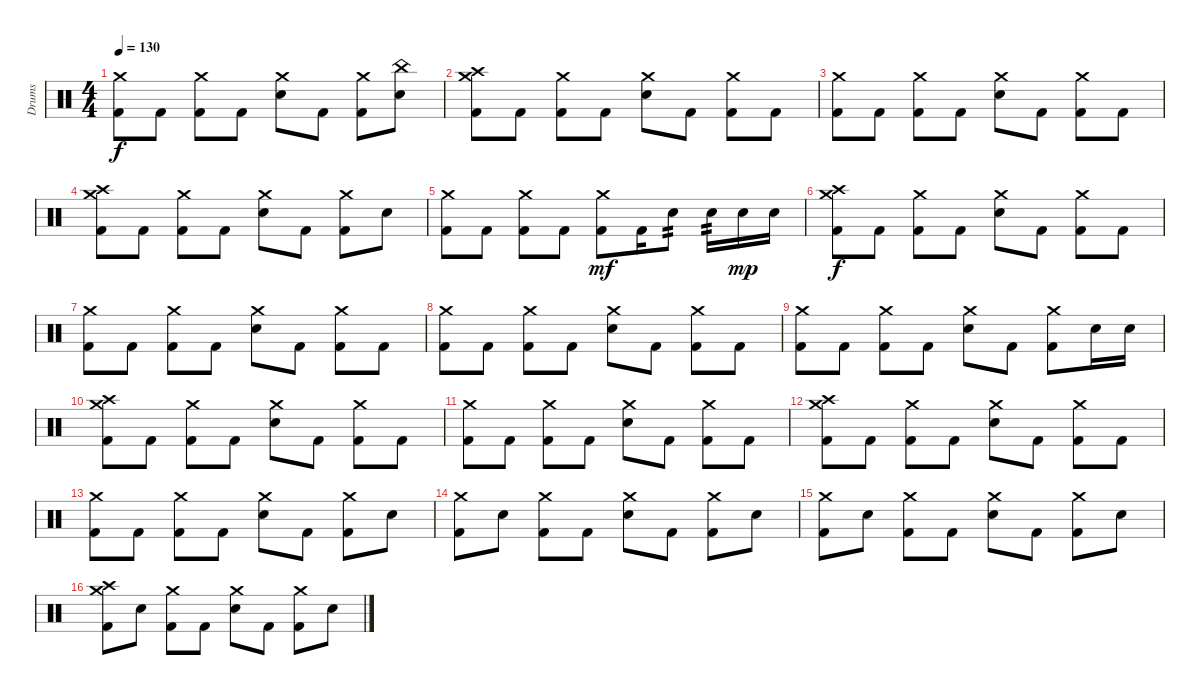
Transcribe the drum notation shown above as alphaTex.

\track ("Drums" "Drums") {instrument percussion}
\staff {score}
\articulation defaults
\ts (4 4)
\tempo 130
\clef neutral
\ks c
("Crash medium (hit)" "Kick (hit) 2").8{dy f} "Kick (hit) 2".8 ("Crash medium (hit)" "Kick (hit) 2").8 "Kick (hit) 2".8 ("Crash medium (hit)" "Snare (hit) 2").8 "Kick (hit) 2".8 ("Crash medium (hit)" "Kick (hit) 2").8 ("China (hit)" "Snare (hit) 2").8 |
("Crash high (hit)" "Crash medium (hit)" "Kick (hit) 2").8 "Kick (hit) 2".8 ("Crash medium (hit)" "Kick (hit) 2").8 "Kick (hit) 2".8 ("Crash medium (hit)" "Snare (hit) 2").8 "Kick (hit) 2".8 ("Crash medium (hit)" "Kick (hit) 2").8 "Kick (hit) 2".8 |
("Crash medium (hit)" "Kick (hit) 2").8 "Kick (hit) 2".8 ("Crash medium (hit)" "Kick (hit) 2").8 "Kick (hit) 2".8 ("Crash medium (hit)" "Snare (hit) 2").8 "Kick (hit) 2".8 ("Crash medium (hit)" "Kick (hit) 2").8 "Kick (hit) 2".8 |
("Crash high (hit)" "Crash medium (hit)" "Kick (hit) 2").8 "Kick (hit) 2".8 ("Crash medium (hit)" "Kick (hit) 2").8 "Kick (hit) 2".8 ("Crash medium (hit)" "Snare (hit) 2").8 "Kick (hit) 2".8 ("Crash medium (hit)" "Kick (hit) 2").8 "Snare (hit) 2".8 |
("Crash medium (hit)" "Kick (hit) 2").8 "Kick (hit) 2".8 ("Crash medium (hit)" "Kick (hit) 2").8 "Kick (hit) 2".8 ("Crash medium (hit)" "Kick (hit) 2").8{dy mf} "Kick (hit) 2".16 "Snare (hit) 2".8{tp 2} "Snare (hit) 2".16{tp 2} "Snare (hit) 2".16{dy mp} "Snare (hit) 2".16 |
("Crash high (hit)" "Crash medium (hit)" "Kick (hit) 2").8{dy f} "Kick (hit) 2".8 ("Crash medium (hit)" "Kick (hit) 2").8 "Kick (hit) 2".8 ("Crash medium (hit)" "Snare (hit) 2").8 "Kick (hit) 2".8 ("Crash medium (hit)" "Kick (hit) 2").8 "Kick (hit) 2".8 |
("Crash medium (hit)" "Kick (hit) 2").8 "Kick (hit) 2".8 ("Crash medium (hit)" "Kick (hit) 2").8 "Kick (hit) 2".8 ("Crash medium (hit)" "Snare (hit) 2").8 "Kick (hit) 2".8 ("Crash medium (hit)" "Kick (hit) 2").8 "Kick (hit) 2".8 |
("Crash medium (hit)" "Kick (hit) 2").8 "Kick (hit) 2".8 ("Crash medium (hit)" "Kick (hit) 2").8 "Kick (hit) 2".8 ("Crash medium (hit)" "Snare (hit) 2").8 "Kick (hit) 2".8 ("Crash medium (hit)" "Kick (hit) 2").8 "Kick (hit) 2".8 |
("Crash medium (hit)" "Kick (hit) 2").8 "Kick (hit) 2".8 ("Crash medium (hit)" "Kick (hit) 2").8 "Kick (hit) 2".8 ("Crash medium (hit)" "Snare (hit) 2").8 "Kick (hit) 2".8 ("Crash medium (hit)" "Kick (hit) 2").8 "Snare (hit) 2".16 "Snare (hit) 2".16 |
("Crash high (hit)" "Crash medium (hit)" "Kick (hit) 2").8 "Kick (hit) 2".8 ("Crash medium (hit)" "Kick (hit) 2").8 "Kick (hit) 2".8 ("Crash medium (hit)" "Snare (hit) 2").8 "Kick (hit) 2".8 ("Crash medium (hit)" "Kick (hit) 2").8 "Kick (hit) 2".8 |
("Crash medium (hit)" "Kick (hit) 2").8 "Kick (hit) 2".8 ("Crash medium (hit)" "Kick (hit) 2").8 "Kick (hit) 2".8 ("Crash medium (hit)" "Snare (hit) 2").8 "Kick (hit) 2".8 ("Crash medium (hit)" "Kick (hit) 2").8 "Kick (hit) 2".8 |
("Crash high (hit)" "Crash medium (hit)" "Kick (hit) 2").8 "Kick (hit) 2".8 ("Crash medium (hit)" "Kick (hit) 2").8 "Kick (hit) 2".8 ("Crash medium (hit)" "Snare (hit) 2").8 "Kick (hit) 2".8 ("Crash medium (hit)" "Kick (hit) 2").8 "Kick (hit) 2".8 |
("Crash medium (hit)" "Kick (hit) 2").8 "Kick (hit) 2".8 ("Crash medium (hit)" "Kick (hit) 2").8 "Kick (hit) 2".8 ("Crash medium (hit)" "Snare (hit) 2").8 "Kick (hit) 2".8 ("Crash medium (hit)" "Kick (hit) 2").8 "Snare (hit) 2".8 |
("Crash medium (hit)" "Kick (hit) 2").8 "Snare (hit) 2".8 ("Crash medium (hit)" "Kick (hit) 2").8 "Kick (hit) 2".8 ("Crash medium (hit)" "Snare (hit) 2").8 "Kick (hit) 2".8 ("Crash medium (hit)" "Kick (hit) 2").8 "Snare (hit) 2".8 |
("Crash medium (hit)" "Kick (hit) 2").8 "Snare (hit) 2".8 ("Crash medium (hit)" "Kick (hit) 2").8 "Kick (hit) 2".8 ("Crash medium (hit)" "Snare (hit) 2").8 "Kick (hit) 2".8 ("Crash medium (hit)" "Kick (hit) 2").8 "Snare (hit) 2".8 |
("Crash high (hit)" "Crash medium (hit)" "Kick (hit) 2").8 "Snare (hit) 2".8 ("Crash medium (hit)" "Kick (hit) 2").8 "Kick (hit) 2".8 ("Crash medium (hit)" "Snare (hit) 2").8 "Kick (hit) 2".8 ("Crash medium (hit)" "Kick (hit) 2").8 "Snare (hit) 2".8
